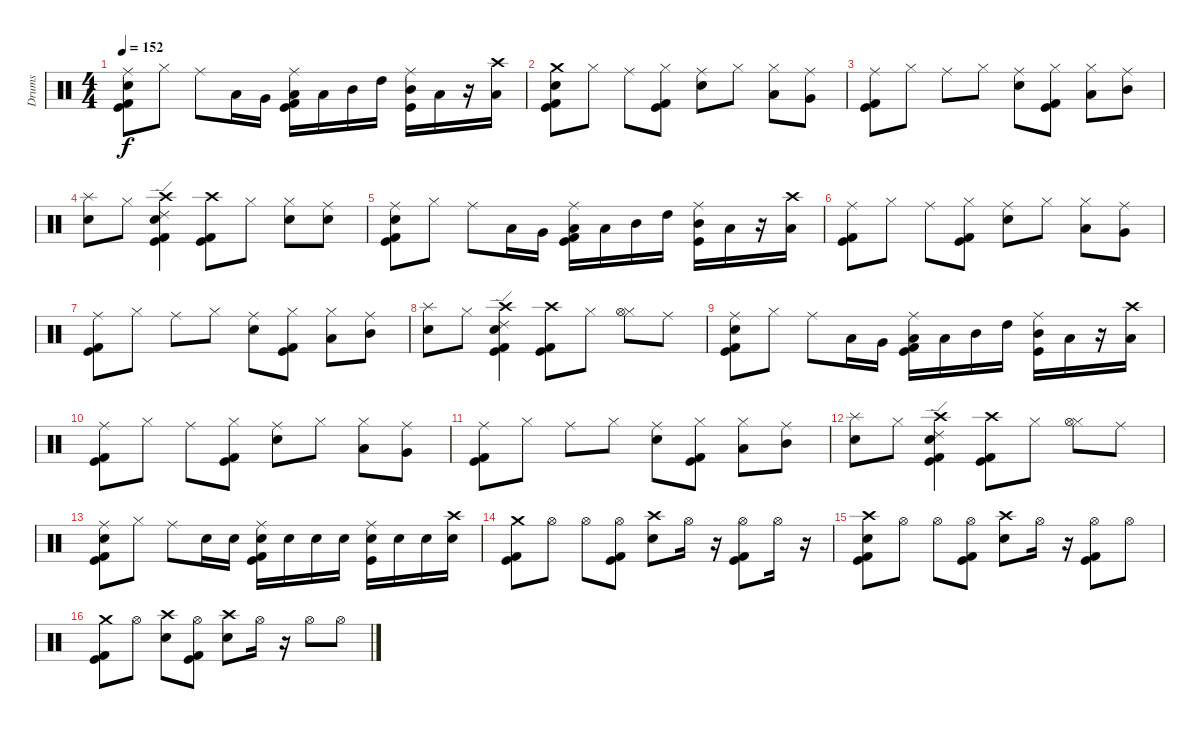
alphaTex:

\track ("Drums" "Drums") {instrument percussion}
\staff {score}
\articulation defaults
\ts (4 4)
\tempo 152
\clef neutral
\ks c
("Ride (middle)" "Electric Snare (hit)" "Kick (hit) 2" "Kick (hit)").8{dy f} "Hi-Hat (closed)".8 "Ride (middle)".8 "Low Floor Tom (hit)".16 "Very Low Tom (hit)".16 ("Ride (middle)" "Low Tom (hit)" "Kick (hit) 2" "Kick (hit)").16 "Low Tom (hit)".16 "Mid Tom (hit)".16 "High Tom (hit)".16 ("Ride (middle)" "Mid Tom (hit)" "Kick (hit)").16 "Low Tom (hit)".16 r.16 ("Crash high (hit)" "Low Floor Tom (hit)").16 |
("Crash medium (hit)" "Electric Snare (hit)" "Kick (hit) 2" "Kick (hit)").8 "Hi-Hat (closed)".8 "Ride (middle)".8 ("Hi-Hat (closed)" "Kick (hit) 2" "Kick (hit)").8 ("Ride (middle)" "Electric Snare (hit)").8 "Hi-Hat (closed)".8 ("Hi-Hat (closed)" "Low Floor Tom (hit)").8 ("Ride (middle)" "Very Low Tom (hit)").8 |
("Ride (middle)" "Kick (hit) 2" "Kick (hit)").8 "Hi-Hat (closed)".8 "Ride (middle)".8 "Hi-Hat (closed)".8 ("Ride (middle)" "Electric Snare (hit)").8 ("Hi-Hat (closed)" "Kick (hit) 2" "Kick (hit)").8 ("Hi-Hat (closed)" "Low Tom (hit)").8 ("Ride (middle)" "Mid Tom (hit)").8 |
("Splash (hit)" "Electric Snare (hit)").8 "Hi-Hat (closed)".8 ("Ride (edge) 2" "Crash high (hit)" "Electric Snare (hit)" "Kick (hit) 2" "Kick (hit)").4 ("Crash high (hit)" "Kick (hit) 2" "Kick (hit)").8 "Hi-Hat (closed)".8 ("Hi-Hat (closed)" "Electric Snare (hit)").8 ("Ride (middle)" "Electric Snare (hit)").8 |
("Ride (middle)" "Electric Snare (hit)" "Kick (hit) 2" "Kick (hit)").8 "Hi-Hat (closed)".8 "Ride (middle)".8 "Low Floor Tom (hit)".16 "Very Low Tom (hit)".16 ("Ride (middle)" "Low Tom (hit)" "Kick (hit) 2" "Kick (hit)").16 "Low Tom (hit)".16 "Mid Tom (hit)".16 "High Tom (hit)".16 ("Ride (middle)" "Mid Tom (hit)" "Kick (hit)").16 "Low Tom (hit)".16 r.16 ("Crash high (hit)" "Low Floor Tom (hit)").16 |
("Ride (middle)" "Kick (hit) 2" "Kick (hit)").8 "Hi-Hat (closed)".8 "Ride (middle)".8 ("Hi-Hat (closed)" "Kick (hit) 2" "Kick (hit)").8 ("Ride (middle)" "Electric Snare (hit)").8 "Hi-Hat (closed)".8 ("Hi-Hat (closed)" "Low Floor Tom (hit)").8 ("Ride (middle)" "Very Low Tom (hit)").8 |
("Ride (middle)" "Kick (hit) 2" "Kick (hit)").8 "Hi-Hat (closed)".8 "Ride (middle)".8 "Hi-Hat (closed)".8 ("Ride (middle)" "Electric Snare (hit)").8 ("Hi-Hat (closed)" "Kick (hit) 2" "Kick (hit)").8 ("Hi-Hat (closed)" "Low Tom (hit)").8 ("Ride (middle)" "Mid Tom (hit)").8 |
("Splash (hit)" "Electric Snare (hit)").8 "Hi-Hat (closed)".8 ("Ride (edge) 2" "Crash high (hit)" "Electric Snare (hit)" "Kick (hit) 2" "Kick (hit)").4 ("Crash high (hit)" "Kick (hit) 2" "Kick (hit)").8 "Hi-Hat (closed)".8 ("Hi-Hat (closed)" "Hi-Hat (open)").8 "Ride (middle)".8 |
("Ride (middle)" "Electric Snare (hit)" "Kick (hit) 2" "Kick (hit)").8 "Hi-Hat (closed)".8 "Ride (middle)".8 "Low Floor Tom (hit)".16 "Very Low Tom (hit)".16 ("Ride (middle)" "Low Tom (hit)" "Kick (hit) 2" "Kick (hit)").16 "Low Tom (hit)".16 "Mid Tom (hit)".16 "High Tom (hit)".16 ("Ride (middle)" "Mid Tom (hit)" "Kick (hit)").16 "Low Tom (hit)".16 r.16 ("Crash high (hit)" "Low Floor Tom (hit)").16 |
("Ride (middle)" "Kick (hit) 2" "Kick (hit)").8 "Hi-Hat (closed)".8 "Ride (middle)".8 ("Hi-Hat (closed)" "Kick (hit) 2" "Kick (hit)").8 ("Ride (middle)" "Electric Snare (hit)").8 "Hi-Hat (closed)".8 ("Hi-Hat (closed)" "Low Floor Tom (hit)").8 ("Ride (middle)" "Very Low Tom (hit)").8 |
("Ride (middle)" "Kick (hit) 2" "Kick (hit)").8 "Hi-Hat (closed)".8 "Ride (middle)".8 "Hi-Hat (closed)".8 ("Ride (middle)" "Electric Snare (hit)").8 ("Hi-Hat (closed)" "Kick (hit) 2" "Kick (hit)").8 ("Hi-Hat (closed)" "Low Tom (hit)").8 ("Ride (middle)" "Mid Tom (hit)").8 |
("Splash (hit)" "Electric Snare (hit)").8 "Hi-Hat (closed)".8 ("Ride (edge) 2" "Crash high (hit)" "Electric Snare (hit)" "Kick (hit) 2" "Kick (hit)").4 ("Crash high (hit)" "Kick (hit) 2" "Kick (hit)").8 "Hi-Hat (closed)".8 ("Hi-Hat (closed)" "Hi-Hat (open)").8 "Ride (middle)".8 |
("Ride (middle)" "Electric Snare (hit)" "Kick (hit) 2" "Kick (hit)").8 "Hi-Hat (closed)".8 "Ride (middle)".8 "Electric Snare (hit)".16 "Electric Snare (hit)".16 ("Ride (middle)" "Electric Snare (hit)" "Kick (hit) 2" "Kick (hit)").16 "Electric Snare (hit)".16 "Electric Snare (hit)".16 "Electric Snare (hit)".16 ("Ride (middle)" "Electric Snare (hit)" "Kick (hit)").16 "Electric Snare (hit)".16 "Electric Snare (hit)".16 ("Crash high (hit)" "Electric Snare (hit)").16 |
("Crash medium (hit)" "Kick (hit) 2" "Kick (hit)").8 "Hi-Hat (open)".8 "Hi-Hat (open)".8 ("Hi-Hat (open)" "Kick (hit) 2" "Kick (hit)").8 ("Crash high (hit)" "Electric Snare (hit)").8 "Hi-Hat (open)".16 r.16 ("Hi-Hat (open)" "Kick (hit) 2" "Kick (hit)").8 "Hi-Hat (open)".16 r.16 |
("Crash high (hit)" "Electric Snare (hit)" "Kick (hit) 2" "Kick (hit)").8 "Hi-Hat (open)".8 "Hi-Hat (open)".8 ("Hi-Hat (open)" "Kick (hit) 2" "Kick (hit)").8 ("Crash high (hit)" "Electric Snare (hit)").8 "Hi-Hat (open)".16 r.16 ("Hi-Hat (open)" "Kick (hit) 2" "Kick (hit)").8 "Hi-Hat (open)".8 |
("Crash medium (hit)" "Kick (hit) 2" "Kick (hit)").8 "Hi-Hat (open)".8 ("Crash high (hit)" "Electric Snare (hit)").8 ("Hi-Hat (open)" "Kick (hit) 2" "Kick (hit)").8 ("Crash high (hit)" "Electric Snare (hit)").8 "Hi-Hat (open)".16 r.16 "Hi-Hat (open)".8 "Hi-Hat (open)".8
